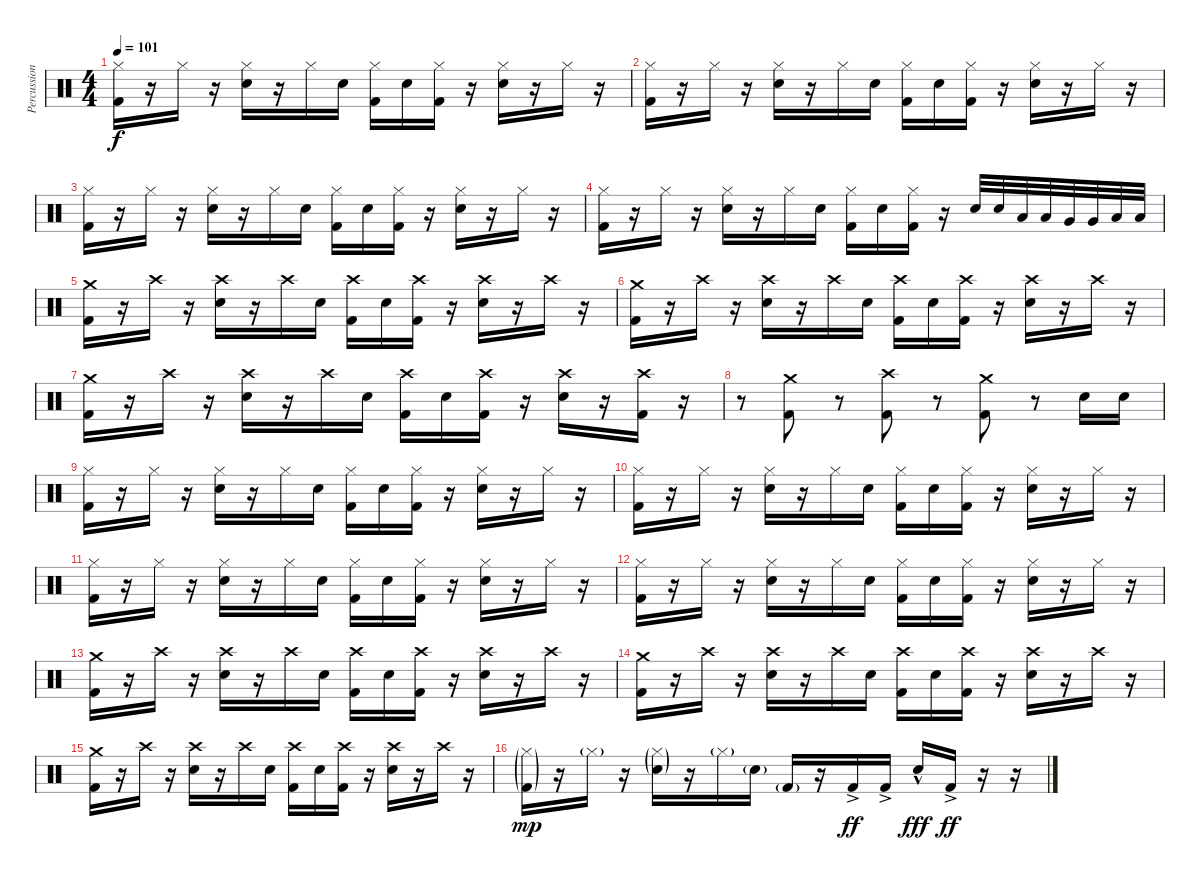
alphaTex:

\track ("Percussioni" "Percussion") {instrument percussion}
\staff {score}
\articulation defaults
\ts (4 4)
\tempo 101
\clef neutral
\ks c
("Hi-Hat (closed)" "Kick (hit) 2").16{dy f} r.16 "Hi-Hat (closed)".16 r.16 ("Hi-Hat (closed)" "Electric Snare (hit)").16 r.16 "Hi-Hat (closed)".16 "Electric Snare (hit)".16 ("Hi-Hat (closed)" "Kick (hit) 2").16 "Electric Snare (hit)".16 ("Hi-Hat (closed)" "Kick (hit) 2").16 r.16 ("Hi-Hat (closed)" "Electric Snare (hit)").16 r.16 "Hi-Hat (closed)".16 r.16 |
("Hi-Hat (closed)" "Kick (hit) 2").16 r.16 "Hi-Hat (closed)".16 r.16 ("Hi-Hat (closed)" "Electric Snare (hit)").16 r.16 "Hi-Hat (closed)".16 "Electric Snare (hit)".16 ("Hi-Hat (closed)" "Kick (hit) 2").16 "Electric Snare (hit)".16 ("Hi-Hat (closed)" "Kick (hit) 2").16 r.16 ("Hi-Hat (closed)" "Electric Snare (hit)").16 r.16 "Hi-Hat (closed)".16 r.16 |
("Hi-Hat (closed)" "Kick (hit) 2").16 r.16 "Hi-Hat (closed)".16 r.16 ("Hi-Hat (closed)" "Electric Snare (hit)").16 r.16 "Hi-Hat (closed)".16 "Electric Snare (hit)".16 ("Hi-Hat (closed)" "Kick (hit) 2").16 "Electric Snare (hit)".16 ("Hi-Hat (closed)" "Kick (hit) 2").16 r.16 ("Hi-Hat (closed)" "Electric Snare (hit)").16 r.16 "Hi-Hat (closed)".16 r.16 |
("Hi-Hat (closed)" "Kick (hit) 2").16 r.16 "Hi-Hat (closed)".16 r.16 ("Hi-Hat (closed)" "Electric Snare (hit)").16 r.16 "Hi-Hat (closed)".16 "Electric Snare (hit)".16 ("Hi-Hat (closed)" "Kick (hit) 2").16 "Electric Snare (hit)".16 ("Hi-Hat (closed)" "Kick (hit) 2").16 r.16 "Electric Snare (hit)".32 "Electric Snare (hit)".32 "Low Tom (hit)".32 "Low Tom (hit)".32 "Very Low Tom (hit)".32 "Very Low Tom (hit)".32 "Low Floor Tom (hit)".32 "Low Floor Tom (hit)".32 |
("Crash medium (hit)" "Kick (hit) 2").16 r.16 "Crash high (hit)".16 r.16 ("Crash high (hit)" "Electric Snare (hit)").16 r.16 "Crash high (hit)".16 "Electric Snare (hit)".16 ("Crash high (hit)" "Kick (hit) 2").16 "Electric Snare (hit)".16 ("Crash high (hit)" "Kick (hit) 2").16 r.16 ("Crash high (hit)" "Electric Snare (hit)").16 r.16 "Crash high (hit)".16 r.16 |
("Crash medium (hit)" "Kick (hit) 2").16 r.16 "Crash high (hit)".16 r.16 ("Crash high (hit)" "Electric Snare (hit)").16 r.16 "Crash high (hit)".16 "Electric Snare (hit)".16 ("Crash high (hit)" "Kick (hit) 2").16 "Electric Snare (hit)".16 ("Crash high (hit)" "Kick (hit) 2").16 r.16 ("Crash high (hit)" "Electric Snare (hit)").16 r.16 "Crash high (hit)".16 r.16 |
("Crash medium (hit)" "Kick (hit) 2").16 r.16 "Crash high (hit)".16 r.16 ("Crash high (hit)" "Electric Snare (hit)").16 r.16 "Crash high (hit)".16 "Electric Snare (hit)".16 ("Crash high (hit)" "Kick (hit) 2").16 "Electric Snare (hit)".16 ("Crash high (hit)" "Kick (hit) 2").16 r.16 ("Crash high (hit)" "Electric Snare (hit)").16 r.16 ("Crash high (hit)" "Kick (hit) 2").16 r.16 |
r.8 ("Crash medium (hit)" "Kick (hit) 2").8 r.8 ("Crash high (hit)" "Kick (hit) 2").8 r.8 ("Crash medium (hit)" "Kick (hit) 2").8 r.8 "Electric Snare (hit)".16 "Electric Snare (hit)".16 |
("Hi-Hat (closed)" "Kick (hit) 2").16 r.16 "Hi-Hat (closed)".16 r.16 ("Hi-Hat (closed)" "Electric Snare (hit)").16 r.16 "Hi-Hat (closed)".16 "Electric Snare (hit)".16 ("Hi-Hat (closed)" "Kick (hit) 2").16 "Electric Snare (hit)".16 ("Hi-Hat (closed)" "Kick (hit) 2").16 r.16 ("Hi-Hat (closed)" "Electric Snare (hit)").16 r.16 "Hi-Hat (closed)".16 r.16 |
("Hi-Hat (closed)" "Kick (hit) 2").16 r.16 "Hi-Hat (closed)".16 r.16 ("Hi-Hat (closed)" "Electric Snare (hit)").16 r.16 "Hi-Hat (closed)".16 "Electric Snare (hit)".16 ("Hi-Hat (closed)" "Kick (hit) 2").16 "Electric Snare (hit)".16 ("Hi-Hat (closed)" "Kick (hit) 2").16 r.16 ("Hi-Hat (closed)" "Electric Snare (hit)").16 r.16 "Hi-Hat (closed)".16 r.16 |
("Hi-Hat (closed)" "Kick (hit) 2").16 r.16 "Hi-Hat (closed)".16 r.16 ("Hi-Hat (closed)" "Electric Snare (hit)").16 r.16 "Hi-Hat (closed)".16 "Electric Snare (hit)".16 ("Hi-Hat (closed)" "Kick (hit) 2").16 "Electric Snare (hit)".16 ("Hi-Hat (closed)" "Kick (hit) 2").16 r.16 ("Hi-Hat (closed)" "Electric Snare (hit)").16 r.16 "Hi-Hat (closed)".16 r.16 |
("Hi-Hat (closed)" "Kick (hit) 2").16 r.16 "Hi-Hat (closed)".16 r.16 ("Hi-Hat (closed)" "Electric Snare (hit)").16 r.16 "Hi-Hat (closed)".16 "Electric Snare (hit)".16 ("Hi-Hat (closed)" "Kick (hit) 2").16 "Electric Snare (hit)".16 ("Hi-Hat (closed)" "Kick (hit) 2").16 r.16 ("Hi-Hat (closed)" "Electric Snare (hit)").16 r.16 "Hi-Hat (closed)".16 r.16 |
("Crash medium (hit)" "Kick (hit) 2").16 r.16 "Crash high (hit)".16 r.16 ("Crash high (hit)" "Electric Snare (hit)").16 r.16 "Crash high (hit)".16 "Electric Snare (hit)".16 ("Crash high (hit)" "Kick (hit) 2").16 "Electric Snare (hit)".16 ("Crash high (hit)" "Kick (hit) 2").16 r.16 ("Crash high (hit)" "Electric Snare (hit)").16 r.16 "Crash high (hit)".16 r.16 |
("Crash medium (hit)" "Kick (hit) 2").16 r.16 "Crash high (hit)".16 r.16 ("Crash high (hit)" "Electric Snare (hit)").16 r.16 "Crash high (hit)".16 "Electric Snare (hit)".16 ("Crash high (hit)" "Kick (hit) 2").16 "Electric Snare (hit)".16 ("Crash high (hit)" "Kick (hit) 2").16 r.16 ("Crash high (hit)" "Electric Snare (hit)").16 r.16 "Crash high (hit)".16 r.16 |
("Crash medium (hit)" "Kick (hit) 2").16 r.16 "Crash high (hit)".16 r.16 ("Crash high (hit)" "Electric Snare (hit)").16 r.16 "Crash high (hit)".16 "Electric Snare (hit)".16 ("Crash high (hit)" "Kick (hit) 2").16 "Electric Snare (hit)".16 ("Crash high (hit)" "Kick (hit) 2").16 r.16 ("Crash high (hit)" "Electric Snare (hit)").16 r.16 "Crash high (hit)".16 r.16 |
("Hi-Hat (closed)"{g} "Kick (hit) 2"{g}).16{dy mp} r.16 "Hi-Hat (closed)"{g}.16 r.16 ("Hi-Hat (closed)"{g} "Electric Snare (hit)"{g}).16 r.16 "Hi-Hat (closed)"{g}.16 "Electric Snare (hit)"{g}.16 "Kick (hit) 2"{g}.16 r.16 "Kick (hit) 2"{ac}.16{dy ff} "Kick (hit) 2"{ac}.16 "Electric Snare (hit)"{hac}.16{dy fff} "Kick (hit) 2"{ac}.16{dy ff} r.16 r.16
